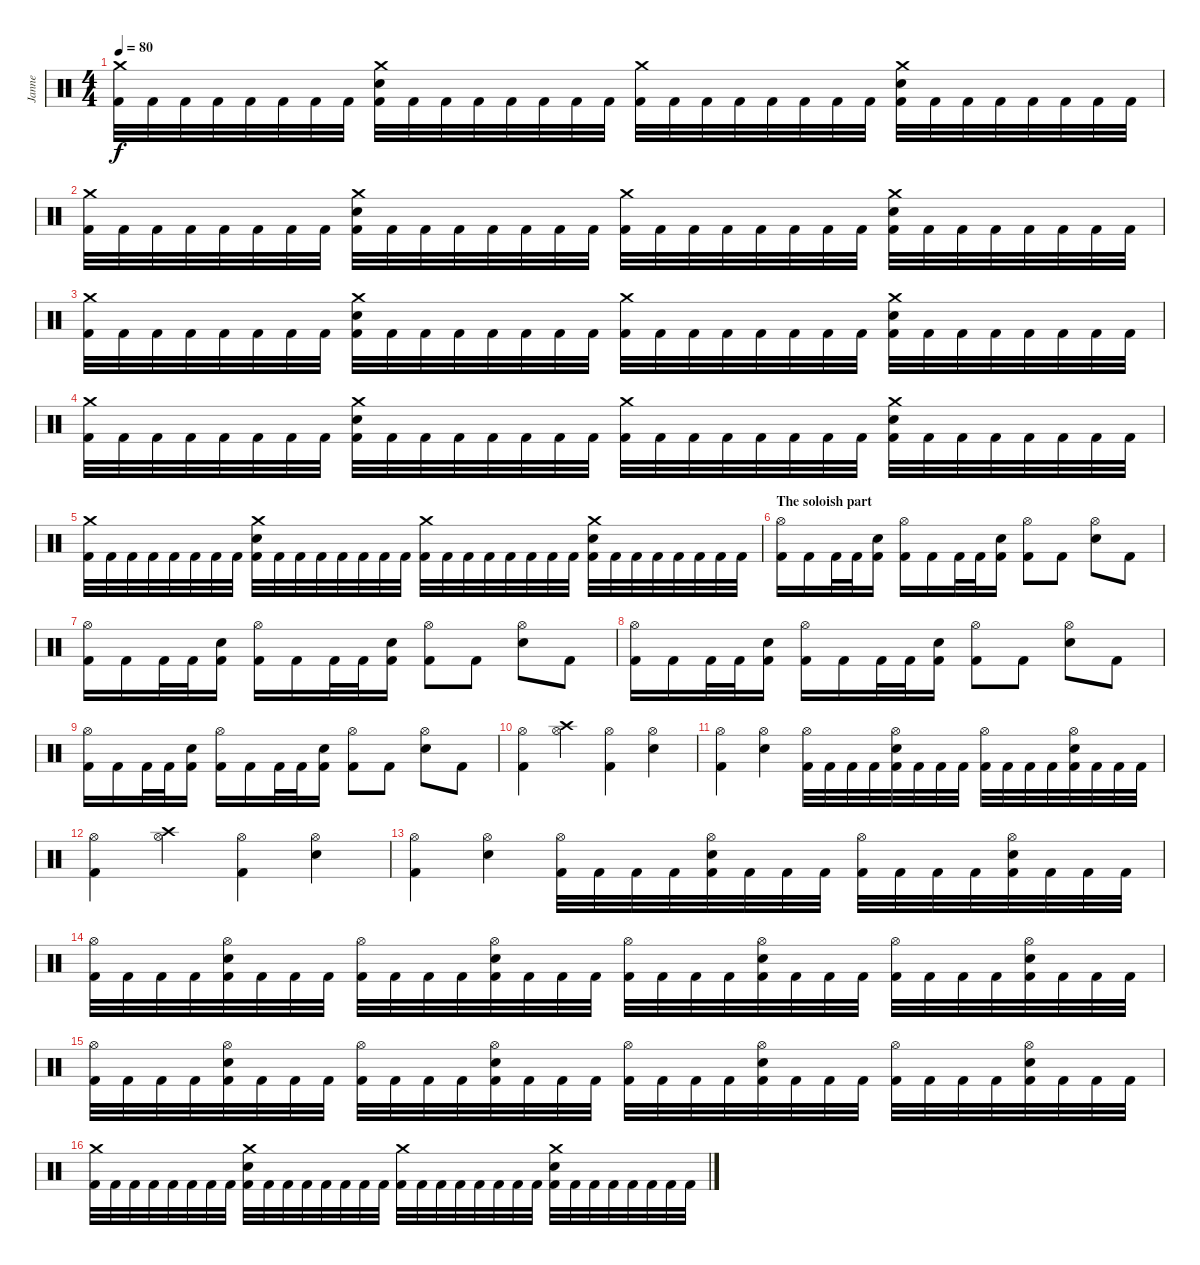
\track ("Janne" "Janne") {instrument percussion}
\staff {score}
\articulation defaults
\ts (4 4)
\tempo 80
\clef neutral
\ks c
("Crash medium (hit)" "Kick (hit) 2").32{dy f} "Kick (hit) 2".32 "Kick (hit) 2".32 "Kick (hit) 2".32 "Kick (hit) 2".32 "Kick (hit) 2".32 "Kick (hit) 2".32 "Kick (hit) 2".32 ("Crash medium (hit)" "Electric Snare (hit)" "Kick (hit) 2").32 "Kick (hit) 2".32 "Kick (hit) 2".32 "Kick (hit) 2".32 "Kick (hit) 2".32 "Kick (hit) 2".32 "Kick (hit) 2".32 "Kick (hit) 2".32 ("Crash medium (hit)" "Kick (hit) 2").32 "Kick (hit) 2".32 "Kick (hit) 2".32 "Kick (hit) 2".32 "Kick (hit) 2".32 "Kick (hit) 2".32 "Kick (hit) 2".32 "Kick (hit) 2".32 ("Crash medium (hit)" "Electric Snare (hit)" "Kick (hit) 2").32 "Kick (hit) 2".32 "Kick (hit) 2".32 "Kick (hit) 2".32 "Kick (hit) 2".32 "Kick (hit) 2".32 "Kick (hit) 2".32 "Kick (hit) 2".32 |
("Crash medium (hit)" "Kick (hit) 2").32 "Kick (hit) 2".32 "Kick (hit) 2".32 "Kick (hit) 2".32 "Kick (hit) 2".32 "Kick (hit) 2".32 "Kick (hit) 2".32 "Kick (hit) 2".32 ("Crash medium (hit)" "Electric Snare (hit)" "Kick (hit) 2").32 "Kick (hit) 2".32 "Kick (hit) 2".32 "Kick (hit) 2".32 "Kick (hit) 2".32 "Kick (hit) 2".32 "Kick (hit) 2".32 "Kick (hit) 2".32 ("Crash medium (hit)" "Kick (hit) 2").32 "Kick (hit) 2".32 "Kick (hit) 2".32 "Kick (hit) 2".32 "Kick (hit) 2".32 "Kick (hit) 2".32 "Kick (hit) 2".32 "Kick (hit) 2".32 ("Crash medium (hit)" "Electric Snare (hit)" "Kick (hit) 2").32 "Kick (hit) 2".32 "Kick (hit) 2".32 "Kick (hit) 2".32 "Kick (hit) 2".32 "Kick (hit) 2".32 "Kick (hit) 2".32 "Kick (hit) 2".32 |
("Crash medium (hit)" "Kick (hit) 2").32 "Kick (hit) 2".32 "Kick (hit) 2".32 "Kick (hit) 2".32 "Kick (hit) 2".32 "Kick (hit) 2".32 "Kick (hit) 2".32 "Kick (hit) 2".32 ("Crash medium (hit)" "Electric Snare (hit)" "Kick (hit) 2").32 "Kick (hit) 2".32 "Kick (hit) 2".32 "Kick (hit) 2".32 "Kick (hit) 2".32 "Kick (hit) 2".32 "Kick (hit) 2".32 "Kick (hit) 2".32 ("Crash medium (hit)" "Kick (hit) 2").32 "Kick (hit) 2".32 "Kick (hit) 2".32 "Kick (hit) 2".32 "Kick (hit) 2".32 "Kick (hit) 2".32 "Kick (hit) 2".32 "Kick (hit) 2".32 ("Crash medium (hit)" "Electric Snare (hit)" "Kick (hit) 2").32 "Kick (hit) 2".32 "Kick (hit) 2".32 "Kick (hit) 2".32 "Kick (hit) 2".32 "Kick (hit) 2".32 "Kick (hit) 2".32 "Kick (hit) 2".32 |
("Crash medium (hit)" "Kick (hit) 2").32 "Kick (hit) 2".32 "Kick (hit) 2".32 "Kick (hit) 2".32 "Kick (hit) 2".32 "Kick (hit) 2".32 "Kick (hit) 2".32 "Kick (hit) 2".32 ("Crash medium (hit)" "Electric Snare (hit)" "Kick (hit) 2").32 "Kick (hit) 2".32 "Kick (hit) 2".32 "Kick (hit) 2".32 "Kick (hit) 2".32 "Kick (hit) 2".32 "Kick (hit) 2".32 "Kick (hit) 2".32 ("Crash medium (hit)" "Kick (hit) 2").32 "Kick (hit) 2".32 "Kick (hit) 2".32 "Kick (hit) 2".32 "Kick (hit) 2".32 "Kick (hit) 2".32 "Kick (hit) 2".32 "Kick (hit) 2".32 ("Crash medium (hit)" "Electric Snare (hit)" "Kick (hit) 2").32 "Kick (hit) 2".32 "Kick (hit) 2".32 "Kick (hit) 2".32 "Kick (hit) 2".32 "Kick (hit) 2".32 "Kick (hit) 2".32 "Kick (hit) 2".32 |
("Crash medium (hit)" "Kick (hit) 2").32 "Kick (hit) 2".32 "Kick (hit) 2".32 "Kick (hit) 2".32 "Kick (hit) 2".32 "Kick (hit) 2".32 "Kick (hit) 2".32 "Kick (hit) 2".32 ("Crash medium (hit)" "Electric Snare (hit)" "Kick (hit) 2").32 "Kick (hit) 2".32 "Kick (hit) 2".32 "Kick (hit) 2".32 "Kick (hit) 2".32 "Kick (hit) 2".32 "Kick (hit) 2".32 "Kick (hit) 2".32 ("Crash medium (hit)" "Kick (hit) 2").32 "Kick (hit) 2".32 "Kick (hit) 2".32 "Kick (hit) 2".32 "Kick (hit) 2".32 "Kick (hit) 2".32 "Kick (hit) 2".32 "Kick (hit) 2".32 ("Crash medium (hit)" "Electric Snare (hit)" "Kick (hit) 2").32 "Kick (hit) 2".32 "Kick (hit) 2".32 "Kick (hit) 2".32 "Kick (hit) 2".32 "Kick (hit) 2".32 "Kick (hit) 2".32 "Kick (hit) 2".32 |
\section ("" "The soloish part")
("Hi-Hat (open)" "Kick (hit) 2").16 "Kick (hit) 2".16 "Kick (hit) 2".32 "Kick (hit) 2".32 ("Electric Snare (hit)" "Kick (hit) 2").16 ("Hi-Hat (open)" "Kick (hit) 2").16 "Kick (hit) 2".16 "Kick (hit) 2".32 "Kick (hit) 2".32 ("Electric Snare (hit)" "Kick (hit) 2").16 ("Hi-Hat (open)" "Kick (hit) 2").8 "Kick (hit) 2".8 ("Hi-Hat (open)" "Electric Snare (hit)").8 "Kick (hit) 2".8 |
("Hi-Hat (open)" "Kick (hit) 2").16 "Kick (hit) 2".16 "Kick (hit) 2".32 "Kick (hit) 2".32 ("Electric Snare (hit)" "Kick (hit) 2").16 ("Hi-Hat (open)" "Kick (hit) 2").16 "Kick (hit) 2".16 "Kick (hit) 2".32 "Kick (hit) 2".32 ("Electric Snare (hit)" "Kick (hit) 2").16 ("Hi-Hat (open)" "Kick (hit) 2").8 "Kick (hit) 2".8 ("Hi-Hat (open)" "Electric Snare (hit)").8 "Kick (hit) 2".8 |
("Hi-Hat (open)" "Kick (hit) 2").16 "Kick (hit) 2".16 "Kick (hit) 2".32 "Kick (hit) 2".32 ("Electric Snare (hit)" "Kick (hit) 2").16 ("Hi-Hat (open)" "Kick (hit) 2").16 "Kick (hit) 2".16 "Kick (hit) 2".32 "Kick (hit) 2".32 ("Electric Snare (hit)" "Kick (hit) 2").16 ("Hi-Hat (open)" "Kick (hit) 2").8 "Kick (hit) 2".8 ("Hi-Hat (open)" "Electric Snare (hit)").8 "Kick (hit) 2".8 |
("Hi-Hat (open)" "Kick (hit) 2").16 "Kick (hit) 2".16 "Kick (hit) 2".32 "Kick (hit) 2".32 ("Electric Snare (hit)" "Kick (hit) 2").16 ("Hi-Hat (open)" "Kick (hit) 2").16 "Kick (hit) 2".16 "Kick (hit) 2".32 "Kick (hit) 2".32 ("Electric Snare (hit)" "Kick (hit) 2").16 ("Hi-Hat (open)" "Kick (hit) 2").8 "Kick (hit) 2".8 ("Hi-Hat (open)" "Electric Snare (hit)").8 "Kick (hit) 2".8 |
("Hi-Hat (open)" "Kick (hit) 2").4 ("Hi-Hat (open)" "Crash high (hit)").4 ("Hi-Hat (open)" "Kick (hit) 2").4 ("Hi-Hat (open)" "Electric Snare (hit)").4 |
("Hi-Hat (open)" "Kick (hit) 2").4 ("Hi-Hat (open)" "Electric Snare (hit)").4 ("Hi-Hat (open)" "Kick (hit) 2").32 "Kick (hit) 2".32 "Kick (hit) 2".32 "Kick (hit) 2".32 ("Hi-Hat (open)" "Electric Snare (hit)" "Kick (hit) 2").32 "Kick (hit) 2".32 "Kick (hit) 2".32 "Kick (hit) 2".32 ("Hi-Hat (open)" "Kick (hit) 2").32 "Kick (hit) 2".32 "Kick (hit) 2".32 "Kick (hit) 2".32 ("Hi-Hat (open)" "Electric Snare (hit)" "Kick (hit) 2").32 "Kick (hit) 2".32 "Kick (hit) 2".32 "Kick (hit) 2".32 |
("Hi-Hat (open)" "Kick (hit) 2").4 ("Hi-Hat (open)" "Crash high (hit)").4 ("Hi-Hat (open)" "Kick (hit) 2").4 ("Hi-Hat (open)" "Electric Snare (hit)").4 |
("Hi-Hat (open)" "Kick (hit) 2").4 ("Hi-Hat (open)" "Electric Snare (hit)").4 ("Hi-Hat (open)" "Kick (hit) 2").32 "Kick (hit) 2".32 "Kick (hit) 2".32 "Kick (hit) 2".32 ("Hi-Hat (open)" "Electric Snare (hit)" "Kick (hit) 2").32 "Kick (hit) 2".32 "Kick (hit) 2".32 "Kick (hit) 2".32 ("Hi-Hat (open)" "Kick (hit) 2").32 "Kick (hit) 2".32 "Kick (hit) 2".32 "Kick (hit) 2".32 ("Hi-Hat (open)" "Electric Snare (hit)" "Kick (hit) 2").32 "Kick (hit) 2".32 "Kick (hit) 2".32 "Kick (hit) 2".32 |
("Hi-Hat (open)" "Kick (hit) 2").32 "Kick (hit) 2".32 "Kick (hit) 2".32 "Kick (hit) 2".32 ("Hi-Hat (open)" "Electric Snare (hit)" "Kick (hit) 2").32 "Kick (hit) 2".32 "Kick (hit) 2".32 "Kick (hit) 2".32 ("Hi-Hat (open)" "Kick (hit) 2").32 "Kick (hit) 2".32 "Kick (hit) 2".32 "Kick (hit) 2".32 ("Hi-Hat (open)" "Electric Snare (hit)" "Kick (hit) 2").32 "Kick (hit) 2".32 "Kick (hit) 2".32 "Kick (hit) 2".32 ("Hi-Hat (open)" "Kick (hit) 2").32 "Kick (hit) 2".32 "Kick (hit) 2".32 "Kick (hit) 2".32 ("Hi-Hat (open)" "Electric Snare (hit)" "Kick (hit) 2").32 "Kick (hit) 2".32 "Kick (hit) 2".32 "Kick (hit) 2".32 ("Hi-Hat (open)" "Kick (hit) 2").32 "Kick (hit) 2".32 "Kick (hit) 2".32 "Kick (hit) 2".32 ("Hi-Hat (open)" "Electric Snare (hit)" "Kick (hit) 2").32 "Kick (hit) 2".32 "Kick (hit) 2".32 "Kick (hit) 2".32 |
("Hi-Hat (open)" "Kick (hit) 2").32 "Kick (hit) 2".32 "Kick (hit) 2".32 "Kick (hit) 2".32 ("Hi-Hat (open)" "Electric Snare (hit)" "Kick (hit) 2").32 "Kick (hit) 2".32 "Kick (hit) 2".32 "Kick (hit) 2".32 ("Hi-Hat (open)" "Kick (hit) 2").32 "Kick (hit) 2".32 "Kick (hit) 2".32 "Kick (hit) 2".32 ("Hi-Hat (open)" "Electric Snare (hit)" "Kick (hit) 2").32 "Kick (hit) 2".32 "Kick (hit) 2".32 "Kick (hit) 2".32 ("Hi-Hat (open)" "Kick (hit) 2").32 "Kick (hit) 2".32 "Kick (hit) 2".32 "Kick (hit) 2".32 ("Hi-Hat (open)" "Electric Snare (hit)" "Kick (hit) 2").32 "Kick (hit) 2".32 "Kick (hit) 2".32 "Kick (hit) 2".32 ("Hi-Hat (open)" "Kick (hit) 2").32 "Kick (hit) 2".32 "Kick (hit) 2".32 "Kick (hit) 2".32 ("Hi-Hat (open)" "Electric Snare (hit)" "Kick (hit) 2").32 "Kick (hit) 2".32 "Kick (hit) 2".32 "Kick (hit) 2".32 |
("Crash medium (hit)" "Kick (hit) 2").32 "Kick (hit) 2".32 "Kick (hit) 2".32 "Kick (hit) 2".32 "Kick (hit) 2".32 "Kick (hit) 2".32 "Kick (hit) 2".32 "Kick (hit) 2".32 ("Crash medium (hit)" "Electric Snare (hit)" "Kick (hit) 2").32 "Kick (hit) 2".32 "Kick (hit) 2".32 "Kick (hit) 2".32 "Kick (hit) 2".32 "Kick (hit) 2".32 "Kick (hit) 2".32 "Kick (hit) 2".32 ("Crash medium (hit)" "Kick (hit) 2").32 "Kick (hit) 2".32 "Kick (hit) 2".32 "Kick (hit) 2".32 "Kick (hit) 2".32 "Kick (hit) 2".32 "Kick (hit) 2".32 "Kick (hit) 2".32 ("Crash medium (hit)" "Electric Snare (hit)" "Kick (hit) 2").32 "Kick (hit) 2".32 "Kick (hit) 2".32 "Kick (hit) 2".32 "Kick (hit) 2".32 "Kick (hit) 2".32 "Kick (hit) 2".32 "Kick (hit) 2".32
